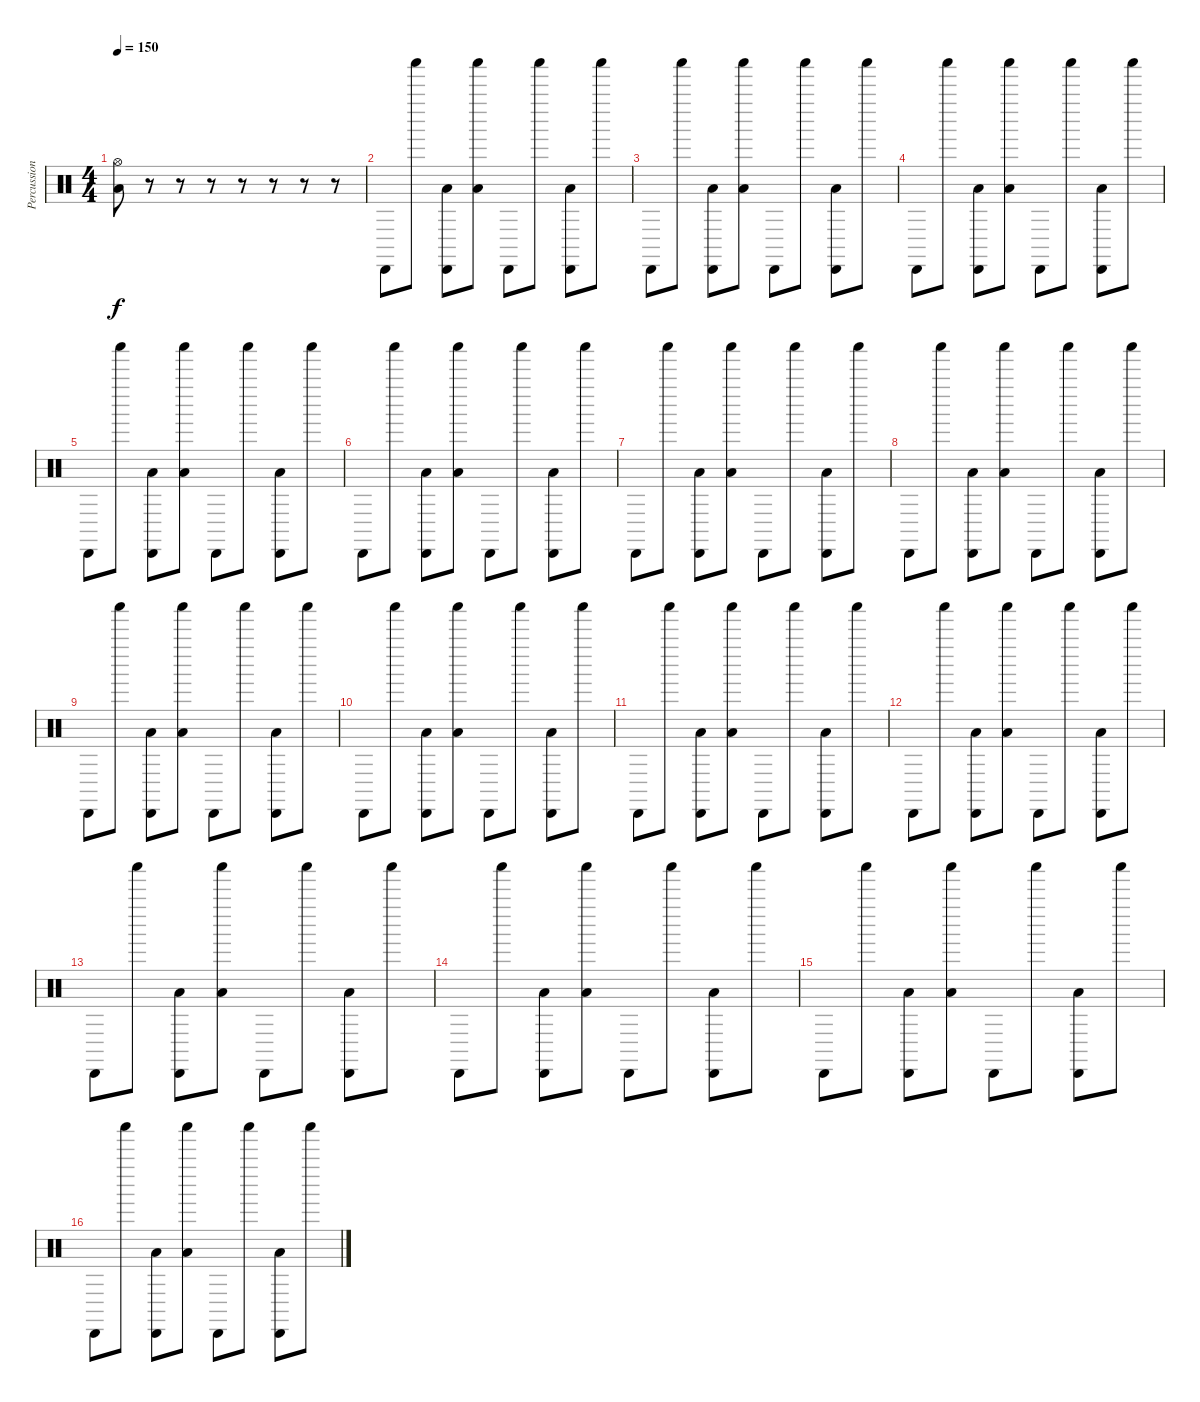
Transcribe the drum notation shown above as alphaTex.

\track ("Percussion" "Percussion") {instrument percussion}
\staff
\articulation defaults
\ts (4 4)
\tempo 150
\clef neutral
\ks c
("Hi-Hat (open)" "Low Floor Tom (hit)").8{dy f} r.8 r.8 r.8 r.8 r.8 r.8 r.8 |
"Cabasa (hit)".8 "Shaker (hit)".8 ("Cabasa (hit)" "Low Floor Tom (hit)").8 ("Shaker (hit)" "Low Floor Tom (hit)").8 "Cabasa (hit)".8 "Shaker (hit)".8 ("Cabasa (hit)" "Low Floor Tom (hit)").8 "Shaker (hit)".8 |
"Cabasa (hit)".8 "Shaker (hit)".8 ("Cabasa (hit)" "Low Floor Tom (hit)").8 ("Shaker (hit)" "Low Floor Tom (hit)").8 "Cabasa (hit)".8 "Shaker (hit)".8 ("Cabasa (hit)" "Low Floor Tom (hit)").8 "Shaker (hit)".8 |
"Cabasa (hit)".8 "Shaker (hit)".8 ("Cabasa (hit)" "Low Floor Tom (hit)").8 ("Shaker (hit)" "Low Floor Tom (hit)").8 "Cabasa (hit)".8 "Shaker (hit)".8 ("Cabasa (hit)" "Low Floor Tom (hit)").8 "Shaker (hit)".8 |
"Cabasa (hit)".8 "Shaker (hit)".8 ("Cabasa (hit)" "Low Floor Tom (hit)").8 ("Shaker (hit)" "Low Floor Tom (hit)").8 "Cabasa (hit)".8 "Shaker (hit)".8 ("Cabasa (hit)" "Low Floor Tom (hit)").8 "Shaker (hit)".8 |
"Cabasa (hit)".8 "Shaker (hit)".8 ("Cabasa (hit)" "Low Floor Tom (hit)").8 ("Shaker (hit)" "Low Floor Tom (hit)").8 "Cabasa (hit)".8 "Shaker (hit)".8 ("Cabasa (hit)" "Low Floor Tom (hit)").8 "Shaker (hit)".8 |
"Cabasa (hit)".8 "Shaker (hit)".8 ("Cabasa (hit)" "Low Floor Tom (hit)").8 ("Shaker (hit)" "Low Floor Tom (hit)").8 "Cabasa (hit)".8 "Shaker (hit)".8 ("Cabasa (hit)" "Low Floor Tom (hit)").8 "Shaker (hit)".8 |
"Cabasa (hit)".8 "Shaker (hit)".8 ("Cabasa (hit)" "Low Floor Tom (hit)").8 ("Shaker (hit)" "Low Floor Tom (hit)").8 "Cabasa (hit)".8 "Shaker (hit)".8 ("Cabasa (hit)" "Low Floor Tom (hit)").8 "Shaker (hit)".8 |
"Cabasa (hit)".8 "Shaker (hit)".8 ("Cabasa (hit)" "Low Floor Tom (hit)").8 ("Shaker (hit)" "Low Floor Tom (hit)").8 "Cabasa (hit)".8 "Shaker (hit)".8 ("Cabasa (hit)" "Low Floor Tom (hit)").8 "Shaker (hit)".8 |
"Cabasa (hit)".8 "Shaker (hit)".8 ("Cabasa (hit)" "Low Floor Tom (hit)").8 ("Shaker (hit)" "Low Floor Tom (hit)").8 "Cabasa (hit)".8 "Shaker (hit)".8 ("Cabasa (hit)" "Low Floor Tom (hit)").8 "Shaker (hit)".8 |
"Cabasa (hit)".8 "Shaker (hit)".8 ("Cabasa (hit)" "Low Floor Tom (hit)").8 ("Shaker (hit)" "Low Floor Tom (hit)").8 "Cabasa (hit)".8 "Shaker (hit)".8 ("Cabasa (hit)" "Low Floor Tom (hit)").8 "Shaker (hit)".8 |
"Cabasa (hit)".8 "Shaker (hit)".8 ("Cabasa (hit)" "Low Floor Tom (hit)").8 ("Shaker (hit)" "Low Floor Tom (hit)").8 "Cabasa (hit)".8 "Shaker (hit)".8 ("Cabasa (hit)" "Low Floor Tom (hit)").8 "Shaker (hit)".8 |
"Cabasa (hit)".8 "Shaker (hit)".8 ("Cabasa (hit)" "Low Floor Tom (hit)").8 ("Shaker (hit)" "Low Floor Tom (hit)").8 "Cabasa (hit)".8 "Shaker (hit)".8 ("Cabasa (hit)" "Low Floor Tom (hit)").8 "Shaker (hit)".8 |
"Cabasa (hit)".8 "Shaker (hit)".8 ("Cabasa (hit)" "Low Floor Tom (hit)").8 ("Shaker (hit)" "Low Floor Tom (hit)").8 "Cabasa (hit)".8 "Shaker (hit)".8 ("Cabasa (hit)" "Low Floor Tom (hit)").8 "Shaker (hit)".8 |
"Cabasa (hit)".8 "Shaker (hit)".8 ("Cabasa (hit)" "Low Floor Tom (hit)").8 ("Shaker (hit)" "Low Floor Tom (hit)").8 "Cabasa (hit)".8 "Shaker (hit)".8 ("Cabasa (hit)" "Low Floor Tom (hit)").8 "Shaker (hit)".8 |
"Cabasa (hit)".8 "Shaker (hit)".8 ("Cabasa (hit)" "Low Floor Tom (hit)").8 ("Shaker (hit)" "Low Floor Tom (hit)").8 "Cabasa (hit)".8 "Shaker (hit)".8 ("Cabasa (hit)" "Low Floor Tom (hit)").8 "Shaker (hit)".8
